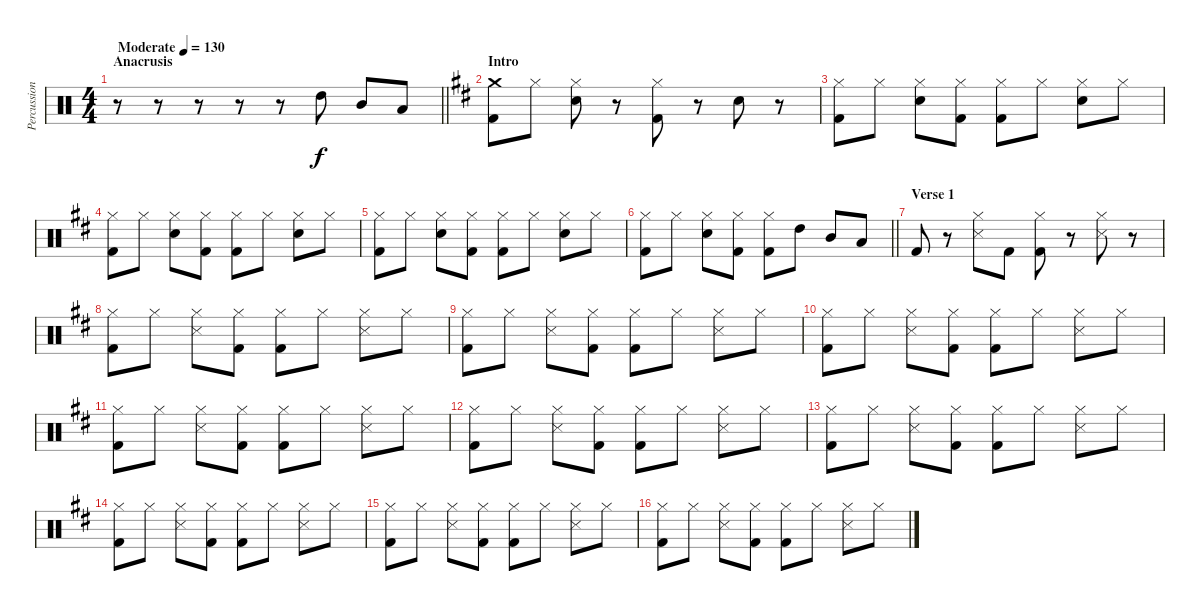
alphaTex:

\track ("Percussion" "Percussion") {instrument percussion}
\staff {score}
\articulation defaults
\ts (4 4)
\section ("" "Anacrusis")
\tempo (130 "Moderate")
\clef neutral
\barLineRight lightlight
\ks c
r.8{dy f} r.8 r.8 r.8 r.8 "High Tom (hit)".8 "Mid Tom (hit)".8 "Low Tom (hit)".8 |
\section ("" "Intro")
\ks d
("Crash medium (hit)" "Kick (hit) 2").8 "Hi-Hat (closed)".8 ("Hi-Hat (closed)" "Electric Snare (hit)").8 r.8 ("Hi-Hat (closed)" "Kick (hit) 2").8 r.8 "Electric Snare (hit)".8 r.8 |
("Hi-Hat (closed)" "Kick (hit) 2").8 "Hi-Hat (closed)".8 ("Hi-Hat (closed)" "Electric Snare (hit)").8 ("Hi-Hat (closed)" "Kick (hit) 2").8 ("Hi-Hat (closed)" "Kick (hit) 2").8 "Hi-Hat (closed)".8 ("Hi-Hat (closed)" "Electric Snare (hit)").8 "Hi-Hat (closed)".8 |
("Hi-Hat (closed)" "Kick (hit) 2").8 "Hi-Hat (closed)".8 ("Hi-Hat (closed)" "Electric Snare (hit)").8 ("Hi-Hat (closed)" "Kick (hit) 2").8 ("Hi-Hat (closed)" "Kick (hit) 2").8 "Hi-Hat (closed)".8 ("Hi-Hat (closed)" "Electric Snare (hit)").8 "Hi-Hat (closed)".8 |
("Hi-Hat (closed)" "Kick (hit) 2").8 "Hi-Hat (closed)".8 ("Hi-Hat (closed)" "Electric Snare (hit)").8 ("Hi-Hat (closed)" "Kick (hit) 2").8 ("Hi-Hat (closed)" "Kick (hit) 2").8 "Hi-Hat (closed)".8 ("Hi-Hat (closed)" "Electric Snare (hit)").8 "Hi-Hat (closed)".8 |
\barLineRight lightlight
("Hi-Hat (closed)" "Kick (hit) 2").8 "Hi-Hat (closed)".8 ("Hi-Hat (closed)" "Electric Snare (hit)").8 ("Hi-Hat (closed)" "Kick (hit) 2").8 ("Hi-Hat (closed)" "Kick (hit) 2").8 "High Tom (hit)".8 "Mid Tom (hit)".8 "Low Tom (hit)".8 |
\section ("" "Verse 1")
"Kick (hit) 2".8 r.8 ("Hi-Hat (closed)" "Snare (side stick) 3").8 "Kick (hit) 2".8 ("Hi-Hat (closed)" "Kick (hit) 2").8 r.8 ("Hi-Hat (closed)" "Snare (side stick) 3").8 r.8 |
("Hi-Hat (closed)" "Kick (hit) 2").8 "Hi-Hat (closed)".8 ("Hi-Hat (closed)" "Snare (side stick) 3").8 ("Hi-Hat (closed)" "Kick (hit) 2").8 ("Hi-Hat (closed)" "Kick (hit) 2").8 "Hi-Hat (closed)".8 ("Hi-Hat (closed)" "Snare (side stick) 3").8 "Hi-Hat (closed)".8 |
("Hi-Hat (closed)" "Kick (hit) 2").8 "Hi-Hat (closed)".8 ("Hi-Hat (closed)" "Snare (side stick) 3").8 ("Hi-Hat (closed)" "Kick (hit) 2").8 ("Hi-Hat (closed)" "Kick (hit) 2").8 "Hi-Hat (closed)".8 ("Hi-Hat (closed)" "Snare (side stick) 3").8 "Hi-Hat (closed)".8 |
("Hi-Hat (closed)" "Kick (hit) 2").8 "Hi-Hat (closed)".8 ("Hi-Hat (closed)" "Snare (side stick) 3").8 ("Hi-Hat (closed)" "Kick (hit) 2").8 ("Hi-Hat (closed)" "Kick (hit) 2").8 "Hi-Hat (closed)".8 ("Hi-Hat (closed)" "Snare (side stick) 3").8 "Hi-Hat (closed)".8 |
("Hi-Hat (closed)" "Kick (hit) 2").8 "Hi-Hat (closed)".8 ("Hi-Hat (closed)" "Snare (side stick) 3").8 ("Hi-Hat (closed)" "Kick (hit) 2").8 ("Hi-Hat (closed)" "Kick (hit) 2").8 "Hi-Hat (closed)".8 ("Hi-Hat (closed)" "Snare (side stick) 3").8 "Hi-Hat (closed)".8 |
("Hi-Hat (closed)" "Kick (hit) 2").8 "Hi-Hat (closed)".8 ("Hi-Hat (closed)" "Snare (side stick) 3").8 ("Hi-Hat (closed)" "Kick (hit) 2").8 ("Hi-Hat (closed)" "Kick (hit) 2").8 "Hi-Hat (closed)".8 ("Hi-Hat (closed)" "Snare (side stick) 3").8 "Hi-Hat (closed)".8 |
("Hi-Hat (closed)" "Kick (hit) 2").8 "Hi-Hat (closed)".8 ("Hi-Hat (closed)" "Snare (side stick) 3").8 ("Hi-Hat (closed)" "Kick (hit) 2").8 ("Hi-Hat (closed)" "Kick (hit) 2").8 "Hi-Hat (closed)".8 ("Hi-Hat (closed)" "Snare (side stick) 3").8 "Hi-Hat (closed)".8 |
("Hi-Hat (closed)" "Kick (hit) 2").8 "Hi-Hat (closed)".8 ("Hi-Hat (closed)" "Snare (side stick) 3").8 ("Hi-Hat (closed)" "Kick (hit) 2").8 ("Hi-Hat (closed)" "Kick (hit) 2").8 "Hi-Hat (closed)".8 ("Hi-Hat (closed)" "Snare (side stick) 3").8 "Hi-Hat (closed)".8 |
("Hi-Hat (closed)" "Kick (hit) 2").8 "Hi-Hat (closed)".8 ("Hi-Hat (closed)" "Snare (side stick) 3").8 ("Hi-Hat (closed)" "Kick (hit) 2").8 ("Hi-Hat (closed)" "Kick (hit) 2").8 "Hi-Hat (closed)".8 ("Hi-Hat (closed)" "Snare (side stick) 3").8 "Hi-Hat (closed)".8 |
("Hi-Hat (closed)" "Kick (hit) 2").8 "Hi-Hat (closed)".8 ("Hi-Hat (closed)" "Snare (side stick) 3").8 ("Hi-Hat (closed)" "Kick (hit) 2").8 ("Hi-Hat (closed)" "Kick (hit) 2").8 "Hi-Hat (closed)".8 ("Hi-Hat (closed)" "Snare (side stick) 3").8 "Hi-Hat (closed)".8
